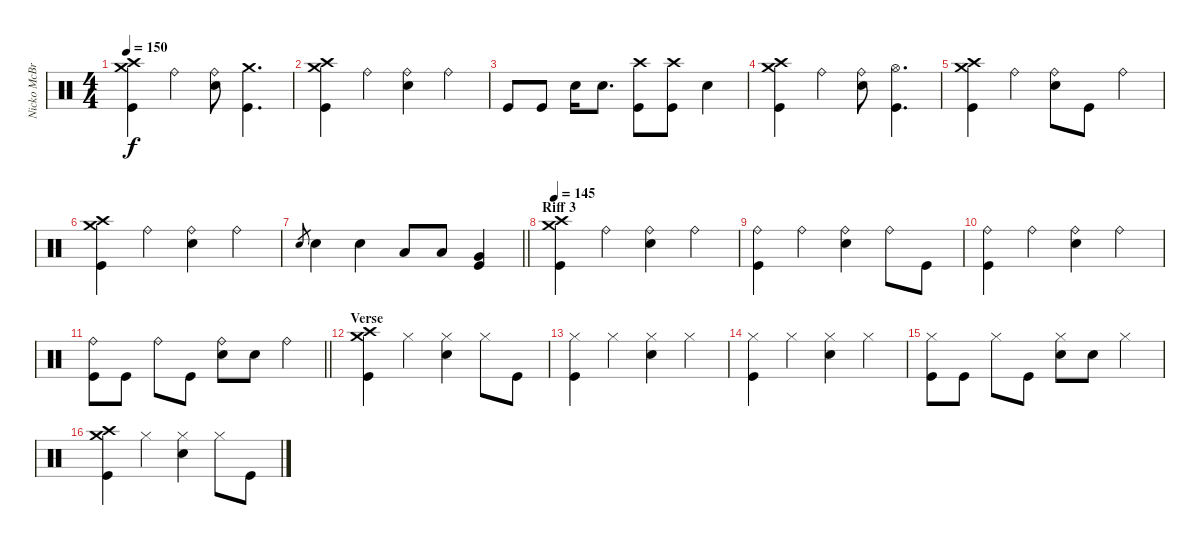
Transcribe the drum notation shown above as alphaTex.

\track ("Nicko McBrain" "Nicko McBr") {instrument percussion}
\staff {score}
\articulation defaults
\ts (4 4)
\tempo 150
\clef neutral
\ks c
("Crash medium (hit)" "Crash high (hit)" "Kick (hit)").4{dy f} "Ride (bell)".4 ("Ride (bell)" "Snare (hit) 2").8 ("Crash medium (hit)" "Kick (hit)").4{d} |
("Crash medium (hit)" "Crash high (hit)" "Kick (hit)").4 "Ride (bell)".4 ("Ride (bell)" "Snare (hit) 2").4 "Ride (bell)".4 |
"Kick (hit)".8 "Kick (hit)".8 "Snare (hit) 2".16 "Snare (hit) 2".8{d} ("Crash high (hit)" "Kick (hit)").8 ("Crash high (hit)" "Kick (hit)").8 "Snare (hit) 2".4 |
("Crash medium (hit)" "Crash high (hit)" "Kick (hit)").4 "Ride (bell)".4 ("Ride (bell)" "Snare (hit) 2").8 ("Hi-Hat (open)" "Kick (hit)").4{d} |
("Crash medium (hit)" "Crash high (hit)" "Kick (hit)").4 "Ride (bell)".4 ("Ride (bell)" "Snare (hit) 2").8 "Kick (hit)".8 "Ride (bell)".4 |
("Crash medium (hit)" "Crash high (hit)" "Kick (hit)").4 "Ride (bell)".4 ("Ride (bell)" "Snare (hit) 2").4 "Ride (bell)".4 |
\barLineRight lightlight "Snare (hit) 2".8{gr} "Snare (hit) 2".4 "Snare (hit) 2".4 "Low Tom (hit)".8 "Low Tom (hit)".8
("Very Low Tom (hit)" "Kick (hit)").4 |
\section ("" "Riff 3")
\tempo 145
("Crash medium (hit)" "Crash high (hit)" "Kick (hit)").4 "Ride (bell)".4 ("Ride (bell)" "Snare (hit) 2").4 "Ride (bell)".4 |
("Ride (bell)" "Kick (hit)").4 "Ride (bell)".4 ("Ride (bell)" "Snare (hit) 2").4 "Ride (bell)".8 "Kick (hit)".8 |
("Ride (bell)" "Kick (hit)").4 "Ride (bell)".4 ("Ride (bell)" "Snare (hit) 2").4 "Ride (bell)".4 |
\barLineRight lightlight
("Ride (bell)" "Kick (hit)").8 "Kick (hit)".8 "Ride (bell)".8 "Kick (hit)".8 ("Ride (bell)" "Snare (hit) 2").8 "Snare (hit) 2".8 "Ride (bell)".4 |
\section ("" "Verse")
("Crash medium (hit)" "Crash high (hit)" "Kick (hit)").4 "Hi-Hat (closed)".4 ("Hi-Hat (closed)" "Snare (hit) 2").4 "Hi-Hat (closed)".8 "Kick (hit)".8 |
("Hi-Hat (closed)" "Kick (hit)").4 "Hi-Hat (closed)".4 ("Hi-Hat (closed)" "Snare (hit) 2").4 "Hi-Hat (closed)".4 |
("Hi-Hat (closed)" "Kick (hit)").4 "Hi-Hat (closed)".4 ("Hi-Hat (closed)" "Snare (hit) 2").4 "Hi-Hat (closed)".4 |
("Hi-Hat (closed)" "Kick (hit)").8 "Kick (hit)".8 "Hi-Hat (closed)".8 "Kick (hit)".8 ("Hi-Hat (closed)" "Snare (hit) 2").8 "Snare (hit) 2".8 "Hi-Hat (closed)".4 |
("Crash medium (hit)" "Crash high (hit)" "Kick (hit)").4 "Hi-Hat (closed)".4 ("Hi-Hat (closed)" "Snare (hit) 2").4 "Hi-Hat (closed)".8 "Kick (hit)".8
